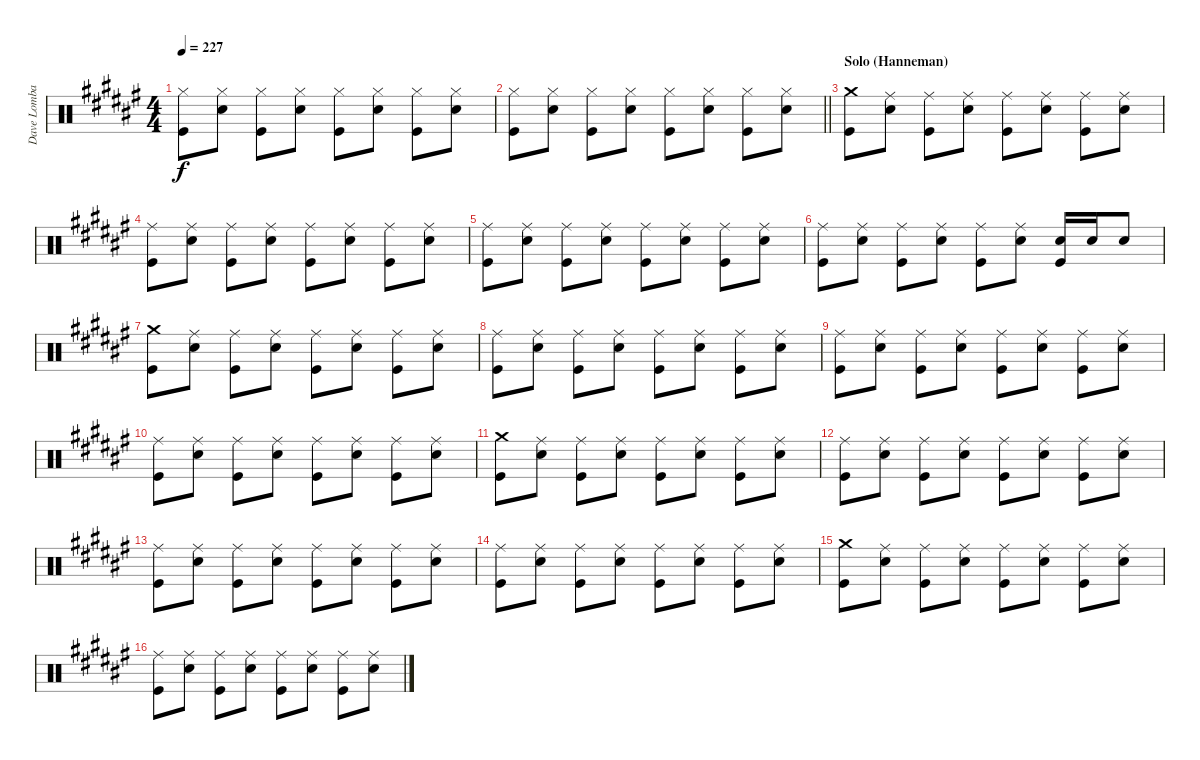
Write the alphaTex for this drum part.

\track ("Dave Lombardo" "Dave Lomba") {instrument percussion}
\staff {score}
\articulation defaults
\ts (4 4)
\tempo 227
\clef neutral
\ks f#
("Hi-Hat (closed)" "Kick (hit)").8{dy f} ("Hi-Hat (closed)" "Snare (hit) 2").8 ("Hi-Hat (closed)" "Kick (hit)").8 ("Hi-Hat (closed)" "Snare (hit) 2").8 ("Hi-Hat (closed)" "Kick (hit)").8 ("Hi-Hat (closed)" "Snare (hit) 2").8 ("Hi-Hat (closed)" "Kick (hit)").8 ("Hi-Hat (closed)" "Snare (hit) 2").8 |
\barLineRight lightlight
("Hi-Hat (closed)" "Kick (hit)").8 ("Hi-Hat (closed)" "Snare (hit) 2").8 ("Hi-Hat (closed)" "Kick (hit)").8 ("Hi-Hat (closed)" "Snare (hit) 2").8 ("Hi-Hat (closed)" "Kick (hit)").8 ("Hi-Hat (closed)" "Snare (hit) 2").8 ("Hi-Hat (closed)" "Kick (hit)").8 ("Hi-Hat (closed)" "Snare (hit) 2").8 |
\section ("" "Solo (Hanneman)")
("Crash medium (hit)" "Kick (hit)").8 ("Ride (middle)" "Snare (hit) 2").8 ("Ride (middle)" "Kick (hit)").8 ("Ride (middle)" "Snare (hit) 2").8 ("Ride (middle)" "Kick (hit)").8 ("Ride (middle)" "Snare (hit) 2").8 ("Ride (middle)" "Kick (hit)").8 ("Ride (middle)" "Snare (hit) 2").8 |
("Ride (middle)" "Kick (hit)").8 ("Ride (middle)" "Snare (hit) 2").8 ("Ride (middle)" "Kick (hit)").8 ("Ride (middle)" "Snare (hit) 2").8 ("Ride (middle)" "Kick (hit)").8 ("Ride (middle)" "Snare (hit) 2").8 ("Ride (middle)" "Kick (hit)").8 ("Ride (middle)" "Snare (hit) 2").8 |
("Ride (middle)" "Kick (hit)").8 ("Ride (middle)" "Snare (hit) 2").8 ("Ride (middle)" "Kick (hit)").8 ("Ride (middle)" "Snare (hit) 2").8 ("Ride (middle)" "Kick (hit)").8 ("Ride (middle)" "Snare (hit) 2").8 ("Ride (middle)" "Kick (hit)").8 ("Ride (middle)" "Snare (hit) 2").8 |
("Ride (middle)" "Kick (hit)").8 ("Ride (middle)" "Snare (hit) 2").8 ("Ride (middle)" "Kick (hit)").8 ("Ride (middle)" "Snare (hit) 2").8 ("Ride (middle)" "Kick (hit)").8 ("Ride (middle)" "Snare (hit) 2").8 ("Snare (hit) 2" "Kick (hit)").16 "Snare (hit) 2".16 "Snare (hit) 2".8 |
("Crash medium (hit)" "Kick (hit)").8 ("Ride (middle)" "Snare (hit) 2").8 ("Ride (middle)" "Kick (hit)").8 ("Ride (middle)" "Snare (hit) 2").8 ("Ride (middle)" "Kick (hit)").8 ("Ride (middle)" "Snare (hit) 2").8 ("Ride (middle)" "Kick (hit)").8 ("Ride (middle)" "Snare (hit) 2").8 |
("Ride (middle)" "Kick (hit)").8 ("Ride (middle)" "Snare (hit) 2").8 ("Ride (middle)" "Kick (hit)").8 ("Ride (middle)" "Snare (hit) 2").8 ("Ride (middle)" "Kick (hit)").8 ("Ride (middle)" "Snare (hit) 2").8 ("Ride (middle)" "Kick (hit)").8 ("Ride (middle)" "Snare (hit) 2").8 |
("Ride (middle)" "Kick (hit)").8 ("Ride (middle)" "Snare (hit) 2").8 ("Ride (middle)" "Kick (hit)").8 ("Ride (middle)" "Snare (hit) 2").8 ("Ride (middle)" "Kick (hit)").8 ("Ride (middle)" "Snare (hit) 2").8 ("Ride (middle)" "Kick (hit)").8 ("Ride (middle)" "Snare (hit) 2").8 |
("Ride (middle)" "Kick (hit)").8 ("Ride (middle)" "Snare (hit) 2").8 ("Ride (middle)" "Kick (hit)").8 ("Ride (middle)" "Snare (hit) 2").8 ("Ride (middle)" "Kick (hit)").8 ("Ride (middle)" "Snare (hit) 2").8 ("Ride (middle)" "Kick (hit)").8 ("Ride (middle)" "Snare (hit) 2").8 |
("Crash medium (hit)" "Kick (hit)").8 ("Ride (middle)" "Snare (hit) 2").8 ("Ride (middle)" "Kick (hit)").8 ("Ride (middle)" "Snare (hit) 2").8 ("Ride (middle)" "Kick (hit)").8 ("Ride (middle)" "Snare (hit) 2").8 ("Ride (middle)" "Kick (hit)").8 ("Ride (middle)" "Snare (hit) 2").8 |
("Ride (middle)" "Kick (hit)").8 ("Ride (middle)" "Snare (hit) 2").8 ("Ride (middle)" "Kick (hit)").8 ("Ride (middle)" "Snare (hit) 2").8 ("Ride (middle)" "Kick (hit)").8 ("Ride (middle)" "Snare (hit) 2").8 ("Ride (middle)" "Kick (hit)").8 ("Ride (middle)" "Snare (hit) 2").8 |
("Ride (middle)" "Kick (hit)").8 ("Ride (middle)" "Snare (hit) 2").8 ("Ride (middle)" "Kick (hit)").8 ("Ride (middle)" "Snare (hit) 2").8 ("Ride (middle)" "Kick (hit)").8 ("Ride (middle)" "Snare (hit) 2").8 ("Ride (middle)" "Kick (hit)").8 ("Ride (middle)" "Snare (hit) 2").8 |
("Ride (middle)" "Kick (hit)").8 ("Ride (middle)" "Snare (hit) 2").8 ("Ride (middle)" "Kick (hit)").8 ("Ride (middle)" "Snare (hit) 2").8 ("Ride (middle)" "Kick (hit)").8 ("Ride (middle)" "Snare (hit) 2").8 ("Ride (middle)" "Kick (hit)").8 ("Ride (middle)" "Snare (hit) 2").8 |
("Crash medium (hit)" "Kick (hit)").8 ("Ride (middle)" "Snare (hit) 2").8 ("Ride (middle)" "Kick (hit)").8 ("Ride (middle)" "Snare (hit) 2").8 ("Ride (middle)" "Kick (hit)").8 ("Ride (middle)" "Snare (hit) 2").8 ("Ride (middle)" "Kick (hit)").8 ("Ride (middle)" "Snare (hit) 2").8 |
("Ride (middle)" "Kick (hit)").8 ("Ride (middle)" "Snare (hit) 2").8 ("Ride (middle)" "Kick (hit)").8 ("Ride (middle)" "Snare (hit) 2").8 ("Ride (middle)" "Kick (hit)").8 ("Ride (middle)" "Snare (hit) 2").8 ("Ride (middle)" "Kick (hit)").8 ("Ride (middle)" "Snare (hit) 2").8
